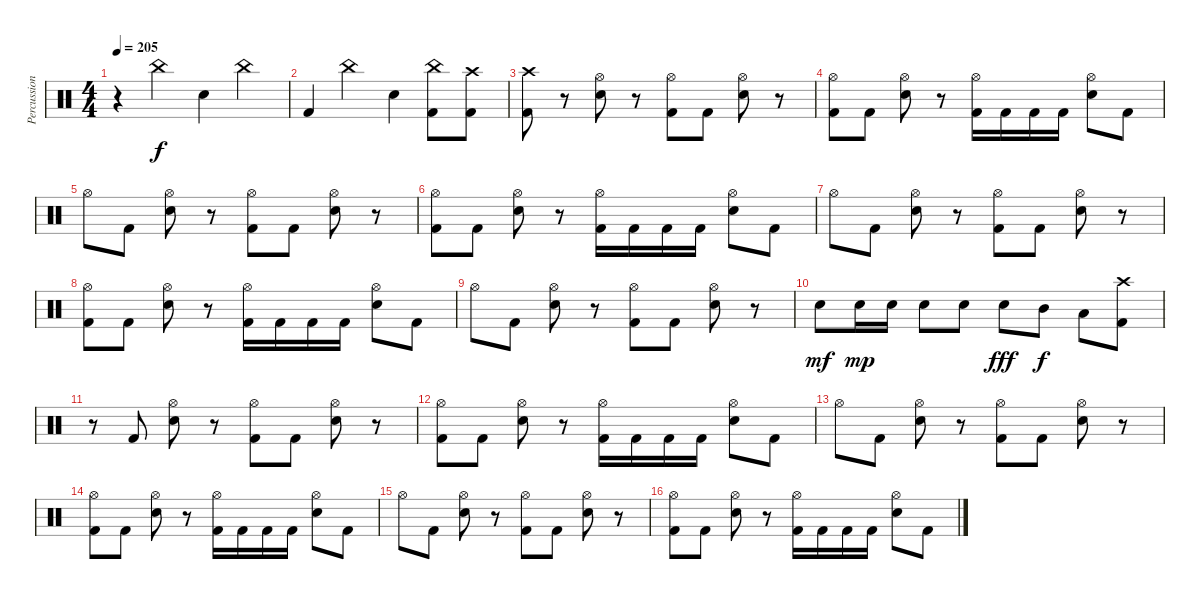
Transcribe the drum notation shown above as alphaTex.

\track ("Percussion" "Percussion") {instrument percussion}
\staff {score}
\articulation defaults
\ts (4 4)
\tempo 205
\clef neutral
\ks c
r.4{dy f} "China (hit)".4 "Electric Snare (hit)".4 "China (hit)".4 |
"Kick (hit) 2".4 "China (hit)".4 "Electric Snare (hit)".4 ("China (hit)" "Kick (hit) 2").8 ("Crash high (hit)" "Kick (hit) 2").8 |
("Crash high (hit)" "Kick (hit) 2").8 r.8 ("Hi-Hat (open)" "Electric Snare (hit)").8 r.8 ("Hi-Hat (open)" "Kick (hit) 2").8 "Kick (hit) 2".8 ("Hi-Hat (open)" "Electric Snare (hit)").8 r.8 |
("Hi-Hat (open)" "Kick (hit) 2").8 "Kick (hit) 2".8 ("Hi-Hat (open)" "Electric Snare (hit)").8 r.8 ("Hi-Hat (open)" "Kick (hit) 2").16 "Kick (hit) 2".16 "Kick (hit) 2".16 "Kick (hit) 2".16 ("Hi-Hat (open)" "Electric Snare (hit)").8 "Kick (hit) 2".8 |
"Hi-Hat (open)".8 "Kick (hit) 2".8 ("Hi-Hat (open)" "Electric Snare (hit)").8 r.8 ("Hi-Hat (open)" "Kick (hit) 2").8 "Kick (hit) 2".8 ("Hi-Hat (open)" "Electric Snare (hit)").8 r.8 |
("Hi-Hat (open)" "Kick (hit) 2").8 "Kick (hit) 2".8 ("Hi-Hat (open)" "Electric Snare (hit)").8 r.8 ("Hi-Hat (open)" "Kick (hit) 2").16 "Kick (hit) 2".16 "Kick (hit) 2".16 "Kick (hit) 2".16 ("Hi-Hat (open)" "Electric Snare (hit)").8 "Kick (hit) 2".8 |
"Hi-Hat (open)".8 "Kick (hit) 2".8 ("Hi-Hat (open)" "Electric Snare (hit)").8 r.8 ("Hi-Hat (open)" "Kick (hit) 2").8 "Kick (hit) 2".8 ("Hi-Hat (open)" "Electric Snare (hit)").8 r.8 |
("Hi-Hat (open)" "Kick (hit) 2").8 "Kick (hit) 2".8 ("Hi-Hat (open)" "Electric Snare (hit)").8 r.8 ("Hi-Hat (open)" "Kick (hit) 2").16 "Kick (hit) 2".16 "Kick (hit) 2".16 "Kick (hit) 2".16 ("Hi-Hat (open)" "Electric Snare (hit)").8 "Kick (hit) 2".8 |
"Hi-Hat (open)".8 "Kick (hit) 2".8 ("Hi-Hat (open)" "Electric Snare (hit)").8 r.8 ("Hi-Hat (open)" "Kick (hit) 2").8 "Kick (hit) 2".8 ("Hi-Hat (open)" "Electric Snare (hit)").8 r.8 |
"Electric Snare (hit)".8{dy mf} "Electric Snare (hit)".16{dy mp} "Electric Snare (hit)".16 "Electric Snare (hit)".8 "Electric Snare (hit)".8 "Electric Snare (hit)".8{dy fff} "Mid Tom (hit)".8{dy f} "Low Tom (hit)".8 ("Crash high (hit)" "Kick (hit) 2").8 |
r.8 "Kick (hit) 2".8 ("Hi-Hat (open)" "Electric Snare (hit)").8 r.8 ("Hi-Hat (open)" "Kick (hit) 2").8 "Kick (hit) 2".8 ("Hi-Hat (open)" "Electric Snare (hit)").8 r.8 |
("Hi-Hat (open)" "Kick (hit) 2").8 "Kick (hit) 2".8 ("Hi-Hat (open)" "Electric Snare (hit)").8 r.8 ("Hi-Hat (open)" "Kick (hit) 2").16 "Kick (hit) 2".16 "Kick (hit) 2".16 "Kick (hit) 2".16 ("Hi-Hat (open)" "Electric Snare (hit)").8 "Kick (hit) 2".8 |
"Hi-Hat (open)".8 "Kick (hit) 2".8 ("Hi-Hat (open)" "Electric Snare (hit)").8 r.8 ("Hi-Hat (open)" "Kick (hit) 2").8 "Kick (hit) 2".8 ("Hi-Hat (open)" "Electric Snare (hit)").8 r.8 |
("Hi-Hat (open)" "Kick (hit) 2").8 "Kick (hit) 2".8 ("Hi-Hat (open)" "Electric Snare (hit)").8 r.8 ("Hi-Hat (open)" "Kick (hit) 2").16 "Kick (hit) 2".16 "Kick (hit) 2".16 "Kick (hit) 2".16 ("Hi-Hat (open)" "Electric Snare (hit)").8 "Kick (hit) 2".8 |
"Hi-Hat (open)".8 "Kick (hit) 2".8 ("Hi-Hat (open)" "Electric Snare (hit)").8 r.8 ("Hi-Hat (open)" "Kick (hit) 2").8 "Kick (hit) 2".8 ("Hi-Hat (open)" "Electric Snare (hit)").8 r.8 |
("Hi-Hat (open)" "Kick (hit) 2").8 "Kick (hit) 2".8 ("Hi-Hat (open)" "Electric Snare (hit)").8 r.8 ("Hi-Hat (open)" "Kick (hit) 2").16 "Kick (hit) 2".16 "Kick (hit) 2".16 "Kick (hit) 2".16 ("Hi-Hat (open)" "Electric Snare (hit)").8 "Kick (hit) 2".8
